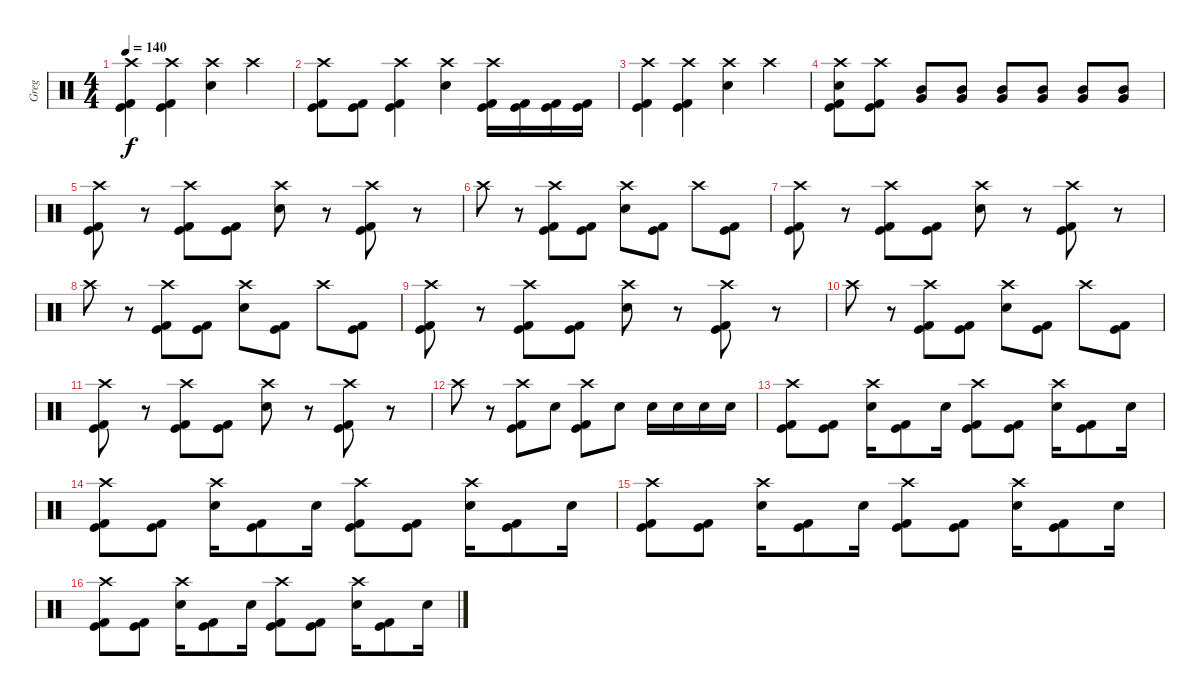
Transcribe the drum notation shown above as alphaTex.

\track ("Greg" "Greg") {instrument percussion}
\staff {score}
\articulation defaults
\ts (4 4)
\tempo 140
\clef neutral
\ks c
("Crash high (hit)" "Kick (hit)" "Kick (hit) 2").4{dy f} ("Crash high (hit)" "Kick (hit)" "Kick (hit) 2").4 ("Crash high (hit)" "Snare (hit) 2").4 "Crash high (hit)".4 |
("Crash high (hit)" "Kick (hit)" "Kick (hit) 2").8 ("Kick (hit)" "Kick (hit) 2").8 ("Crash high (hit)" "Kick (hit)" "Kick (hit) 2").4 ("Crash high (hit)" "Snare (hit) 2").4 ("Crash high (hit)" "Kick (hit)" "Kick (hit) 2").16 ("Kick (hit)" "Kick (hit) 2").16 ("Kick (hit)" "Kick (hit) 2").16 ("Kick (hit)" "Kick (hit) 2").16 |
("Crash high (hit)" "Kick (hit)" "Kick (hit) 2").4 ("Crash high (hit)" "Kick (hit)" "Kick (hit) 2").4 ("Crash high (hit)" "Snare (hit) 2").4 "Crash high (hit)".4 |
("Crash high (hit)" "Snare (hit) 2" "Kick (hit)" "Kick (hit) 2").8 ("Crash high (hit)" "Kick (hit)" "Kick (hit) 2").8 ("Mid Tom (hit)" "Very Low Tom (hit)").8 ("Mid Tom (hit)" "Very Low Tom (hit)").8 ("Mid Tom (hit)" "Very Low Tom (hit)").8 ("Mid Tom (hit)" "Very Low Tom (hit)").8 ("Mid Tom (hit)" "Very Low Tom (hit)").8 ("Mid Tom (hit)" "Very Low Tom (hit)").8 |
("Crash high (hit)" "Kick (hit)" "Kick (hit) 2").8 r.8 ("Crash high (hit)" "Kick (hit)" "Kick (hit) 2").8 ("Kick (hit)" "Kick (hit) 2").8 ("Crash high (hit)" "Snare (hit) 2").8 r.8 ("Crash high (hit)" "Kick (hit)" "Kick (hit) 2").8 r.8 |
"Crash high (hit)".8 r.8 ("Crash high (hit)" "Kick (hit)" "Kick (hit) 2").8 ("Kick (hit)" "Kick (hit) 2").8 ("Crash high (hit)" "Snare (hit) 2").8 ("Kick (hit)" "Kick (hit) 2").8 "Crash high (hit)".8 ("Kick (hit)" "Kick (hit) 2").8 |
("Crash high (hit)" "Kick (hit)" "Kick (hit) 2").8 r.8 ("Crash high (hit)" "Kick (hit)" "Kick (hit) 2").8 ("Kick (hit)" "Kick (hit) 2").8 ("Crash high (hit)" "Snare (hit) 2").8 r.8 ("Crash high (hit)" "Kick (hit)" "Kick (hit) 2").8 r.8 |
"Crash high (hit)".8 r.8 ("Crash high (hit)" "Kick (hit)" "Kick (hit) 2").8 ("Kick (hit)" "Kick (hit) 2").8 ("Crash high (hit)" "Snare (hit) 2").8 ("Kick (hit)" "Kick (hit) 2").8 "Crash high (hit)".8 ("Kick (hit)" "Kick (hit) 2").8 |
("Crash high (hit)" "Kick (hit)" "Kick (hit) 2").8 r.8 ("Crash high (hit)" "Kick (hit)" "Kick (hit) 2").8 ("Kick (hit)" "Kick (hit) 2").8 ("Crash high (hit)" "Snare (hit) 2").8 r.8 ("Crash high (hit)" "Kick (hit)" "Kick (hit) 2").8 r.8 |
"Crash high (hit)".8 r.8 ("Crash high (hit)" "Kick (hit)" "Kick (hit) 2").8 ("Kick (hit)" "Kick (hit) 2").8 ("Crash high (hit)" "Snare (hit) 2").8 ("Kick (hit)" "Kick (hit) 2").8 "Crash high (hit)".8 ("Kick (hit)" "Kick (hit) 2").8 |
("Crash high (hit)" "Kick (hit)" "Kick (hit) 2").8 r.8 ("Crash high (hit)" "Kick (hit)" "Kick (hit) 2").8 ("Kick (hit)" "Kick (hit) 2").8 ("Crash high (hit)" "Snare (hit) 2").8 r.8 ("Crash high (hit)" "Kick (hit)" "Kick (hit) 2").8 r.8 |
"Crash high (hit)".8 r.8 ("Crash high (hit)" "Kick (hit)" "Kick (hit) 2").8 "Snare (hit) 2".8 ("Crash high (hit)" "Kick (hit)" "Kick (hit) 2").8 "Snare (hit) 2".8 "Snare (hit) 2".16 "Snare (hit) 2".16 "Snare (hit) 2".16 "Snare (hit) 2".16 |
("Crash high (hit)" "Kick (hit)" "Kick (hit) 2").8 ("Kick (hit)" "Kick (hit) 2").8 ("Crash high (hit)" "Snare (hit) 2").16 ("Kick (hit)" "Kick (hit) 2").8 "Snare (hit) 2".16 ("Crash high (hit)" "Kick (hit)" "Kick (hit) 2").8 ("Kick (hit)" "Kick (hit) 2").8 ("Crash high (hit)" "Snare (hit) 2").16 ("Kick (hit)" "Kick (hit) 2").8 "Snare (hit) 2".16 |
("Crash high (hit)" "Kick (hit)" "Kick (hit) 2").8 ("Kick (hit)" "Kick (hit) 2").8 ("Crash high (hit)" "Snare (hit) 2").16 ("Kick (hit)" "Kick (hit) 2").8 "Snare (hit) 2".16 ("Crash high (hit)" "Kick (hit)" "Kick (hit) 2").8 ("Kick (hit)" "Kick (hit) 2").8 ("Crash high (hit)" "Snare (hit) 2").16 ("Kick (hit)" "Kick (hit) 2").8 "Snare (hit) 2".16 |
("Crash high (hit)" "Kick (hit)" "Kick (hit) 2").8 ("Kick (hit)" "Kick (hit) 2").8 ("Crash high (hit)" "Snare (hit) 2").16 ("Kick (hit)" "Kick (hit) 2").8 "Snare (hit) 2".16 ("Crash high (hit)" "Kick (hit)" "Kick (hit) 2").8 ("Kick (hit)" "Kick (hit) 2").8 ("Crash high (hit)" "Snare (hit) 2").16 ("Kick (hit)" "Kick (hit) 2").8 "Snare (hit) 2".16 |
("Crash high (hit)" "Kick (hit)" "Kick (hit) 2").8 ("Kick (hit)" "Kick (hit) 2").8 ("Crash high (hit)" "Snare (hit) 2").16 ("Kick (hit)" "Kick (hit) 2").8 "Snare (hit) 2".16 ("Crash high (hit)" "Kick (hit)" "Kick (hit) 2").8 ("Kick (hit)" "Kick (hit) 2").8 ("Crash high (hit)" "Snare (hit) 2").16 ("Kick (hit)" "Kick (hit) 2").8 "Snare (hit) 2".16
